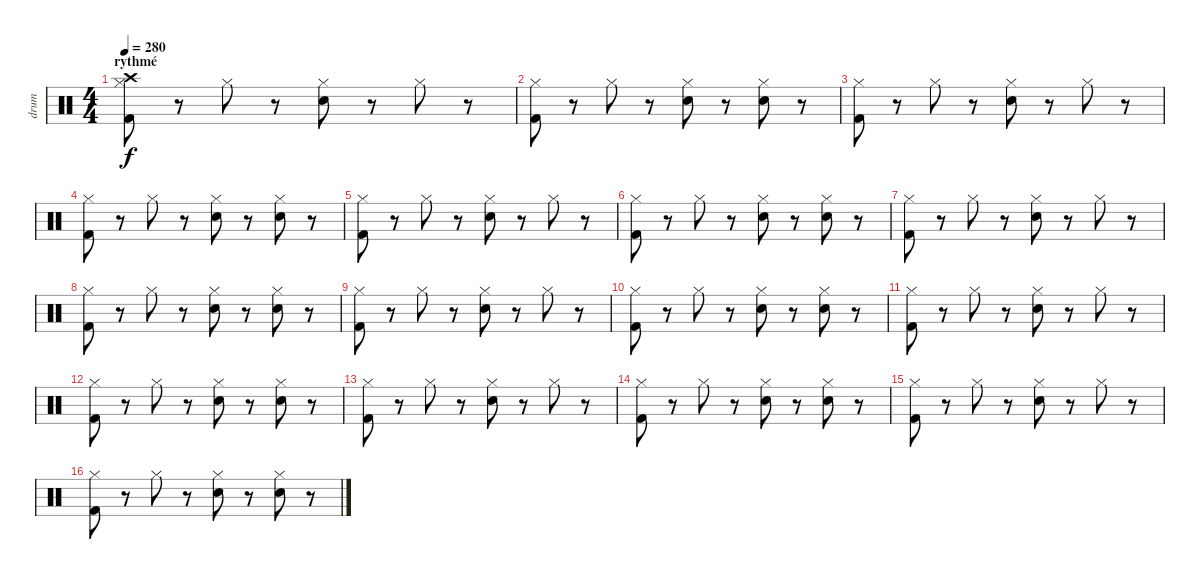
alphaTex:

\track ("drum" "drum") {instrument percussion}
\staff {score}
\articulation defaults
\ts (4 4)
\section ("" "rythmé")
\tempo 280
\clef neutral
\ks c
("Crash high (hit)" "Hi-Hat (closed)" "Kick (hit) 2").8{dy f volume 13} r.8 "Hi-Hat (closed)".8 r.8 ("Hi-Hat (closed)" "Hand Clap (hit)").8 r.8 "Hi-Hat (closed)".8 r.8 |
("Hi-Hat (closed)" "Kick (hit) 2").8 r.8 "Hi-Hat (closed)".8 r.8 ("Hi-Hat (closed)" "Hand Clap (hit)").8 r.8 ("Hi-Hat (closed)" "Hand Clap (hit)").8 r.8 |
("Hi-Hat (closed)" "Kick (hit) 2").8 r.8 "Hi-Hat (closed)".8 r.8 ("Hi-Hat (closed)" "Hand Clap (hit)").8 r.8 "Hi-Hat (closed)".8 r.8 |
("Hi-Hat (closed)" "Kick (hit) 2").8 r.8 "Hi-Hat (closed)".8 r.8 ("Hi-Hat (closed)" "Hand Clap (hit)").8 r.8 ("Hi-Hat (closed)" "Hand Clap (hit)").8 r.8 |
("Hi-Hat (closed)" "Kick (hit) 2").8 r.8 "Hi-Hat (closed)".8 r.8 ("Hi-Hat (closed)" "Hand Clap (hit)").8 r.8 "Hi-Hat (closed)".8 r.8 |
("Hi-Hat (closed)" "Kick (hit) 2").8 r.8 "Hi-Hat (closed)".8 r.8 ("Hi-Hat (closed)" "Hand Clap (hit)").8 r.8 ("Hi-Hat (closed)" "Hand Clap (hit)").8 r.8 |
("Hi-Hat (closed)" "Kick (hit) 2").8 r.8 "Hi-Hat (closed)".8 r.8 ("Hi-Hat (closed)" "Hand Clap (hit)").8 r.8 "Hi-Hat (closed)".8 r.8 |
("Hi-Hat (closed)" "Kick (hit) 2").8 r.8 "Hi-Hat (closed)".8 r.8 ("Hi-Hat (closed)" "Hand Clap (hit)").8 r.8 ("Hi-Hat (closed)" "Hand Clap (hit)").8 r.8 |
("Hi-Hat (closed)" "Kick (hit) 2").8 r.8 "Hi-Hat (closed)".8 r.8 ("Hi-Hat (closed)" "Hand Clap (hit)").8 r.8 "Hi-Hat (closed)".8 r.8 |
("Hi-Hat (closed)" "Kick (hit) 2").8 r.8 "Hi-Hat (closed)".8 r.8 ("Hi-Hat (closed)" "Hand Clap (hit)").8 r.8 ("Hi-Hat (closed)" "Hand Clap (hit)").8 r.8 |
("Hi-Hat (closed)" "Kick (hit) 2").8 r.8 "Hi-Hat (closed)".8 r.8 ("Hi-Hat (closed)" "Hand Clap (hit)").8 r.8 "Hi-Hat (closed)".8 r.8 |
("Hi-Hat (closed)" "Kick (hit) 2").8 r.8 "Hi-Hat (closed)".8 r.8 ("Hi-Hat (closed)" "Hand Clap (hit)").8 r.8 ("Hi-Hat (closed)" "Hand Clap (hit)").8 r.8 |
("Hi-Hat (closed)" "Kick (hit) 2").8 r.8 "Hi-Hat (closed)".8 r.8 ("Hi-Hat (closed)" "Hand Clap (hit)").8 r.8 "Hi-Hat (closed)".8 r.8 |
("Hi-Hat (closed)" "Kick (hit) 2").8 r.8 "Hi-Hat (closed)".8 r.8 ("Hi-Hat (closed)" "Hand Clap (hit)").8 r.8 ("Hi-Hat (closed)" "Hand Clap (hit)").8 r.8 |
("Hi-Hat (closed)" "Kick (hit) 2").8 r.8 "Hi-Hat (closed)".8 r.8 ("Hi-Hat (closed)" "Hand Clap (hit)").8 r.8 "Hi-Hat (closed)".8 r.8 |
("Hi-Hat (closed)" "Kick (hit) 2").8 r.8 "Hi-Hat (closed)".8 r.8 ("Hi-Hat (closed)" "Hand Clap (hit)").8 r.8 ("Hi-Hat (closed)" "Hand Clap (hit)").8 r.8
